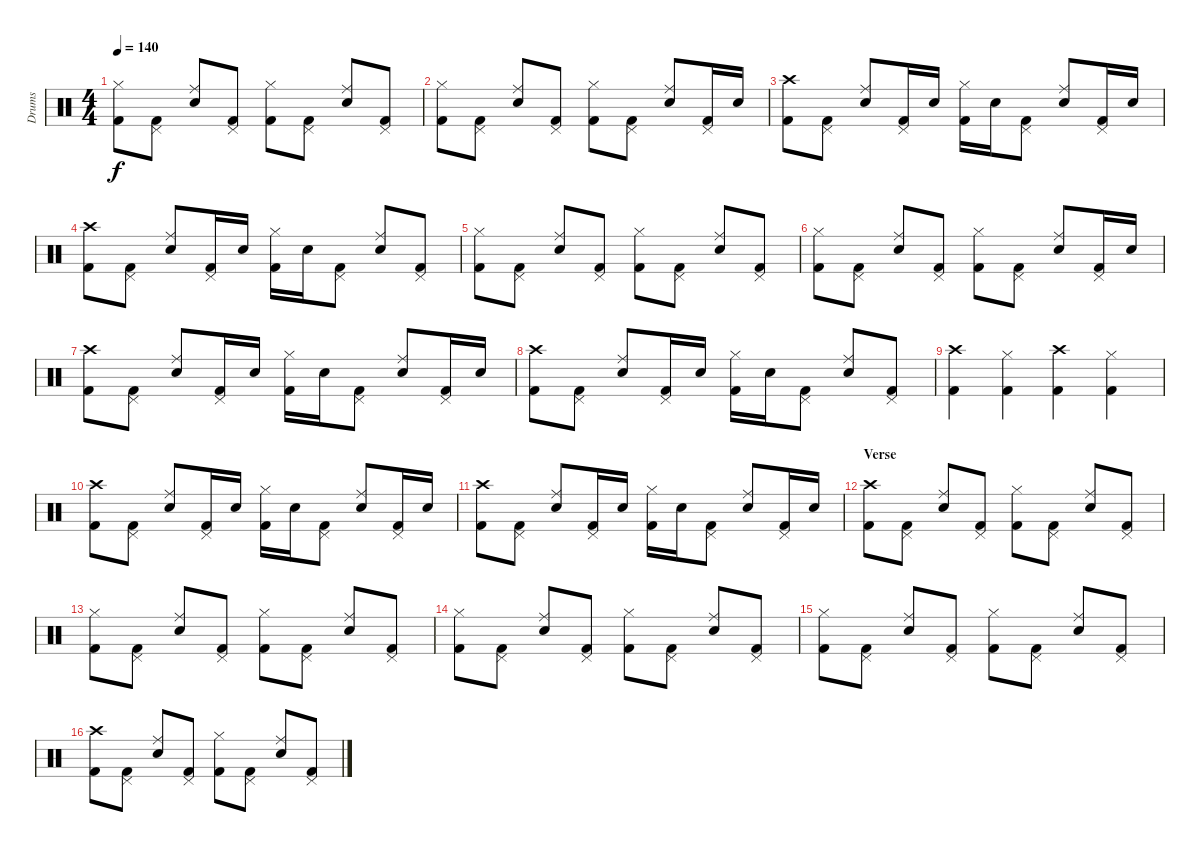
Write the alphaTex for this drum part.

\track ("Drums" "Drums") {instrument percussion}
\staff {score}
\articulation defaults
\ts (4 4)
\tempo 140
\clef neutral
\ks c
("Kick (hit) 2" "Hi-Hat (closed)").8{dy f} ("Kick (hit) 2" "Pedal Hi-Hat (hit)").8 ("Electric Snare (hit)" "Ride (middle)").8 ("Kick (hit) 2" "Pedal Hi-Hat (hit)").8 ("Kick (hit) 2" "Hi-Hat (closed)").8 ("Kick (hit) 2" "Pedal Hi-Hat (hit)").8 ("Electric Snare (hit)" "Ride (middle)").8 ("Kick (hit) 2" "Pedal Hi-Hat (hit)").8 |
("Kick (hit) 2" "Hi-Hat (closed)").8 ("Kick (hit) 2" "Pedal Hi-Hat (hit)").8 ("Electric Snare (hit)" "Ride (middle)").8 ("Kick (hit) 2" "Pedal Hi-Hat (hit)").8 ("Kick (hit) 2" "Hi-Hat (closed)").8 ("Kick (hit) 2" "Pedal Hi-Hat (hit)").8 ("Electric Snare (hit)" "Ride (middle)").8 ("Kick (hit) 2" "Pedal Hi-Hat (hit)").16 "Electric Snare (hit)".16 |
("Kick (hit) 2" "Crash high (hit)").8 ("Kick (hit) 2" "Pedal Hi-Hat (hit)").8 ("Electric Snare (hit)" "Ride (middle)").8 ("Kick (hit) 2" "Pedal Hi-Hat (hit)").16 "Snare (hit) 2".16 ("Kick (hit) 2" "Hi-Hat (closed)").16 "Snare (hit) 2".16 ("Kick (hit) 2" "Pedal Hi-Hat (hit)").8 ("Electric Snare (hit)" "Ride (middle)").8 ("Kick (hit) 2" "Pedal Hi-Hat (hit)").16 "Electric Snare (hit)".16 |
("Kick (hit) 2" "Crash high (hit)").8 ("Kick (hit) 2" "Pedal Hi-Hat (hit)").8 ("Electric Snare (hit)" "Ride (middle)").8 ("Kick (hit) 2" "Pedal Hi-Hat (hit)").16 "Snare (hit) 2".16 ("Kick (hit) 2" "Hi-Hat (closed)").16 "Snare (hit) 2".16 ("Kick (hit) 2" "Pedal Hi-Hat (hit)").8 ("Electric Snare (hit)" "Ride (middle)").8 ("Kick (hit) 2" "Pedal Hi-Hat (hit)").8 |
("Kick (hit) 2" "Hi-Hat (closed)").8 ("Kick (hit) 2" "Pedal Hi-Hat (hit)").8 ("Electric Snare (hit)" "Ride (middle)").8 ("Kick (hit) 2" "Pedal Hi-Hat (hit)").8 ("Kick (hit) 2" "Hi-Hat (closed)").8 ("Kick (hit) 2" "Pedal Hi-Hat (hit)").8 ("Electric Snare (hit)" "Ride (middle)").8 ("Kick (hit) 2" "Pedal Hi-Hat (hit)").8 |
("Kick (hit) 2" "Hi-Hat (closed)").8 ("Kick (hit) 2" "Pedal Hi-Hat (hit)").8 ("Electric Snare (hit)" "Ride (middle)").8 ("Kick (hit) 2" "Pedal Hi-Hat (hit)").8 ("Kick (hit) 2" "Hi-Hat (closed)").8 ("Kick (hit) 2" "Pedal Hi-Hat (hit)").8 ("Electric Snare (hit)" "Ride (middle)").8 ("Kick (hit) 2" "Pedal Hi-Hat (hit)").16 "Electric Snare (hit)".16 |
("Kick (hit) 2" "Crash high (hit)").8 ("Kick (hit) 2" "Pedal Hi-Hat (hit)").8 ("Electric Snare (hit)" "Ride (middle)").8 ("Kick (hit) 2" "Pedal Hi-Hat (hit)").16 "Snare (hit) 2".16 ("Kick (hit) 2" "Hi-Hat (closed)").16 "Snare (hit) 2".16 ("Kick (hit) 2" "Pedal Hi-Hat (hit)").8 ("Electric Snare (hit)" "Ride (middle)").8 ("Kick (hit) 2" "Pedal Hi-Hat (hit)").16 "Electric Snare (hit)".16 |
("Kick (hit) 2" "Crash high (hit)").8 ("Kick (hit) 2" "Pedal Hi-Hat (hit)").8 ("Electric Snare (hit)" "Ride (middle)").8 ("Kick (hit) 2" "Pedal Hi-Hat (hit)").16 "Snare (hit) 2".16 ("Kick (hit) 2" "Hi-Hat (closed)").16 "Snare (hit) 2".16 ("Kick (hit) 2" "Pedal Hi-Hat (hit)").8 ("Electric Snare (hit)" "Ride (middle)").8 ("Kick (hit) 2" "Pedal Hi-Hat (hit)").8 |
("Kick (hit) 2" "Crash high (hit)").4 ("Kick (hit) 2" "Hi-Hat (closed)").4 ("Kick (hit) 2" "Crash high (hit)").4 ("Kick (hit) 2" "Hi-Hat (closed)").4 |
("Kick (hit) 2" "Crash high (hit)").8 ("Kick (hit) 2" "Pedal Hi-Hat (hit)").8 ("Electric Snare (hit)" "Ride (middle)").8 ("Kick (hit) 2" "Pedal Hi-Hat (hit)").16 "Snare (hit) 2".16 ("Kick (hit) 2" "Hi-Hat (closed)").16 "Snare (hit) 2".16 ("Kick (hit) 2" "Pedal Hi-Hat (hit)").8 ("Electric Snare (hit)" "Ride (middle)").8 ("Kick (hit) 2" "Pedal Hi-Hat (hit)").16 "Electric Snare (hit)".16 |
("Kick (hit) 2" "Crash high (hit)").8 ("Kick (hit) 2" "Pedal Hi-Hat (hit)").8 ("Electric Snare (hit)" "Ride (middle)").8 ("Kick (hit) 2" "Pedal Hi-Hat (hit)").16 "Snare (hit) 2".16 ("Kick (hit) 2" "Hi-Hat (closed)").16 "Snare (hit) 2".16 ("Kick (hit) 2" "Pedal Hi-Hat (hit)").8 ("Electric Snare (hit)" "Ride (middle)").8 ("Kick (hit) 2" "Pedal Hi-Hat (hit)").16 "Electric Snare (hit)".16 |
\section ("" "Verse")
("Kick (hit) 2" "Crash high (hit)").8 ("Kick (hit) 2" "Pedal Hi-Hat (hit)").8 ("Electric Snare (hit)" "Ride (middle)").8 ("Kick (hit) 2" "Pedal Hi-Hat (hit)").8 ("Kick (hit) 2" "Hi-Hat (closed)").8 ("Kick (hit) 2" "Pedal Hi-Hat (hit)").8 ("Electric Snare (hit)" "Ride (middle)").8 ("Kick (hit) 2" "Pedal Hi-Hat (hit)").8 |
("Kick (hit) 2" "Hi-Hat (closed)").8 ("Kick (hit) 2" "Pedal Hi-Hat (hit)").8 ("Electric Snare (hit)" "Ride (middle)").8 ("Kick (hit) 2" "Pedal Hi-Hat (hit)").8 ("Kick (hit) 2" "Hi-Hat (closed)").8 ("Kick (hit) 2" "Pedal Hi-Hat (hit)").8 ("Electric Snare (hit)" "Ride (middle)").8 ("Kick (hit) 2" "Pedal Hi-Hat (hit)").8 |
("Kick (hit) 2" "Hi-Hat (closed)").8 ("Kick (hit) 2" "Pedal Hi-Hat (hit)").8 ("Electric Snare (hit)" "Ride (middle)").8 ("Kick (hit) 2" "Pedal Hi-Hat (hit)").8 ("Kick (hit) 2" "Hi-Hat (closed)").8 ("Kick (hit) 2" "Pedal Hi-Hat (hit)").8 ("Electric Snare (hit)" "Ride (middle)").8 ("Kick (hit) 2" "Pedal Hi-Hat (hit)").8 |
("Kick (hit) 2" "Hi-Hat (closed)").8 ("Kick (hit) 2" "Pedal Hi-Hat (hit)").8 ("Electric Snare (hit)" "Ride (middle)").8 ("Kick (hit) 2" "Pedal Hi-Hat (hit)").8 ("Kick (hit) 2" "Hi-Hat (closed)").8 ("Kick (hit) 2" "Pedal Hi-Hat (hit)").8 ("Electric Snare (hit)" "Ride (middle)").8 ("Kick (hit) 2" "Pedal Hi-Hat (hit)").8 |
("Kick (hit) 2" "Crash high (hit)").8 ("Kick (hit) 2" "Pedal Hi-Hat (hit)").8 ("Electric Snare (hit)" "Ride (middle)").8 ("Kick (hit) 2" "Pedal Hi-Hat (hit)").8 ("Kick (hit) 2" "Hi-Hat (closed)").8 ("Kick (hit) 2" "Pedal Hi-Hat (hit)").8 ("Electric Snare (hit)" "Ride (middle)").8 ("Kick (hit) 2" "Pedal Hi-Hat (hit)").8
